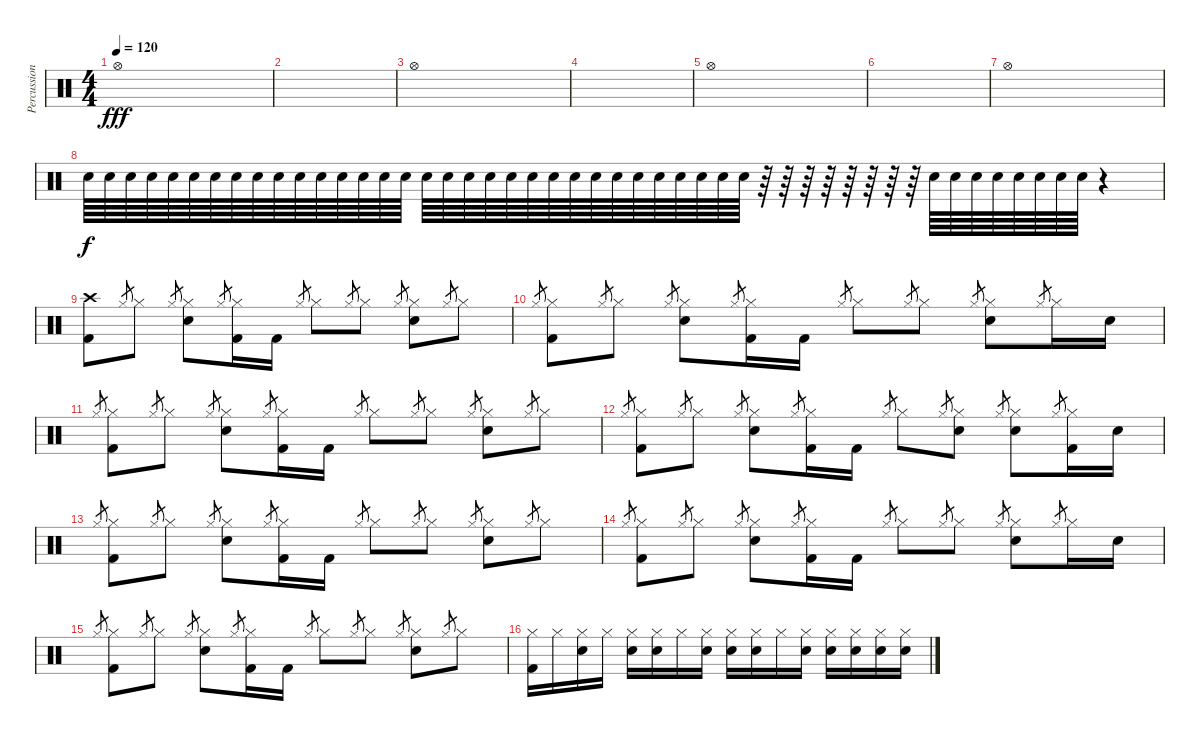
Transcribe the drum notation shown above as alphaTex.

\track ("Percussion" "Percussion") {instrument percussion}
\staff {score}
\articulation defaults
\ts (4 4)
\tempo 120
\clef neutral
\ks c "Hi-Hat (open)".1{dy fff}
|
|
"Hi-Hat (open)".1 |
|
"Hi-Hat (open)".1 |
|
"Hi-Hat (open)".1 |
"Snare (hit) 2".64{dy f} "Snare (hit) 2".64 "Snare (hit) 2".64 "Snare (hit) 2".64 "Snare (hit) 2".64 "Snare (hit) 2".64 "Snare (hit) 2".64 "Snare (hit) 2".64 "Snare (hit) 2".64 "Snare (hit) 2".64 "Snare (hit) 2".64 "Snare (hit) 2".64 "Snare (hit) 2".64 "Snare (hit) 2".64 "Snare (hit) 2".64 "Snare (hit) 2".64 "Snare (hit) 2".64 "Snare (hit) 2".64 "Snare (hit) 2".64 "Snare (hit) 2".64 "Snare (hit) 2".64 "Snare (hit) 2".64 "Snare (hit) 2".64 "Snare (hit) 2".64 "Snare (hit) 2".64 "Snare (hit) 2".64 "Snare (hit) 2".64 "Snare (hit) 2".64 "Snare (hit) 2".64 "Snare (hit) 2".64 "Snare (hit) 2".64 "Snare (hit) 2".64 r.64 r.64 r.64 r.64 r.64 r.64 r.64 r.64 "Snare (hit) 2".64 "Snare (hit) 2".64 "Snare (hit) 2".64 "Snare (hit) 2".64 "Snare (hit) 2".64 "Snare (hit) 2".64 "Snare (hit) 2".64 "Snare (hit) 2".64 r.4 |
("Crash high (hit)" "Kick (hit) 2").8 "Hi-Hat (closed)".8{gr} "Hi-Hat (closed)".8 "Hi-Hat (closed)".8{gr} ("Hi-Hat (closed)" "Snare (hit) 2").8 "Hi-Hat (closed)".8{gr} ("Hi-Hat (closed)" "Kick (hit) 2").16 "Kick (hit) 2".16 "Hi-Hat (closed)".8{gr} "Hi-Hat (closed)".8 "Hi-Hat (closed)".8{gr} "Hi-Hat (closed)".8 "Hi-Hat (closed)".8{gr} ("Hi-Hat (closed)" "Snare (hit) 2").8 "Hi-Hat (closed)".8{gr} "Hi-Hat (closed)".8 |
"Hi-Hat (closed)".8{gr} ("Hi-Hat (closed)" "Kick (hit) 2").8 "Hi-Hat (closed)".8{gr} "Hi-Hat (closed)".8 "Hi-Hat (closed)".8{gr} ("Hi-Hat (closed)" "Snare (hit) 2").8 "Hi-Hat (closed)".8{gr} ("Hi-Hat (closed)" "Kick (hit) 2").16 "Kick (hit) 2".16 "Hi-Hat (closed)".8{gr} "Hi-Hat (closed)".8 "Hi-Hat (closed)".8{gr} "Hi-Hat (closed)".8 "Hi-Hat (closed)".8{gr} ("Hi-Hat (closed)" "Snare (hit) 2").8 "Hi-Hat (closed)".8{gr} "Hi-Hat (closed)".16 "Snare (hit) 2".16 |
"Hi-Hat (closed)".8{gr} ("Hi-Hat (closed)" "Kick (hit) 2").8 "Hi-Hat (closed)".8{gr} "Hi-Hat (closed)".8 "Hi-Hat (closed)".8{gr} ("Hi-Hat (closed)" "Snare (hit) 2").8 "Hi-Hat (closed)".8{gr} ("Hi-Hat (closed)" "Kick (hit) 2").16 "Kick (hit) 2".16 "Hi-Hat (closed)".8{gr} "Hi-Hat (closed)".8 "Hi-Hat (closed)".8{gr} "Hi-Hat (closed)".8 "Hi-Hat (closed)".8{gr} ("Hi-Hat (closed)" "Snare (hit) 2").8 "Hi-Hat (closed)".8{gr} "Hi-Hat (closed)".8 |
"Hi-Hat (closed)".8{gr} ("Hi-Hat (closed)" "Kick (hit) 2").8 "Hi-Hat (closed)".8{gr} "Hi-Hat (closed)".8 "Hi-Hat (closed)".8{gr} ("Hi-Hat (closed)" "Snare (hit) 2").8 "Hi-Hat (closed)".8{gr} ("Hi-Hat (closed)" "Kick (hit) 2").16 "Kick (hit) 2".16 "Hi-Hat (closed)".8{gr} "Hi-Hat (closed)".8 "Hi-Hat (closed)".8{gr} ("Hi-Hat (closed)" "Snare (hit) 2").8 "Hi-Hat (closed)".8{gr} ("Hi-Hat (closed)" "Snare (hit) 2").8 "Hi-Hat (closed)".8{gr} ("Hi-Hat (closed)" "Kick (hit) 2").16 "Snare (hit) 2".16 |
"Hi-Hat (closed)".8{gr} ("Hi-Hat (closed)" "Kick (hit) 2").8 "Hi-Hat (closed)".8{gr} "Hi-Hat (closed)".8 "Hi-Hat (closed)".8{gr} ("Hi-Hat (closed)" "Snare (hit) 2").8 "Hi-Hat (closed)".8{gr} ("Hi-Hat (closed)" "Kick (hit) 2").16 "Kick (hit) 2".16 "Hi-Hat (closed)".8{gr} "Hi-Hat (closed)".8 "Hi-Hat (closed)".8{gr} "Hi-Hat (closed)".8 "Hi-Hat (closed)".8{gr} ("Hi-Hat (closed)" "Snare (hit) 2").8 "Hi-Hat (closed)".8{gr} "Hi-Hat (closed)".8 |
"Hi-Hat (closed)".8{gr} ("Hi-Hat (closed)" "Kick (hit) 2").8 "Hi-Hat (closed)".8{gr} "Hi-Hat (closed)".8 "Hi-Hat (closed)".8{gr} ("Hi-Hat (closed)" "Snare (hit) 2").8 "Hi-Hat (closed)".8{gr} ("Hi-Hat (closed)" "Kick (hit) 2").16 "Kick (hit) 2".16 "Hi-Hat (closed)".8{gr} "Hi-Hat (closed)".8 "Hi-Hat (closed)".8{gr} "Hi-Hat (closed)".8 "Hi-Hat (closed)".8{gr} ("Hi-Hat (closed)" "Snare (hit) 2").8 "Hi-Hat (closed)".8{gr} "Hi-Hat (closed)".16 "Snare (hit) 2".16 |
"Hi-Hat (closed)".8{gr} ("Hi-Hat (closed)" "Kick (hit) 2").8 "Hi-Hat (closed)".8{gr} "Hi-Hat (closed)".8 "Hi-Hat (closed)".8{gr} ("Hi-Hat (closed)" "Snare (hit) 2").8 "Hi-Hat (closed)".8{gr} ("Hi-Hat (closed)" "Kick (hit) 2").16 "Kick (hit) 2".16 "Hi-Hat (closed)".8{gr} "Hi-Hat (closed)".8 "Hi-Hat (closed)".8{gr} "Hi-Hat (closed)".8 "Hi-Hat (closed)".8{gr} ("Hi-Hat (closed)" "Snare (hit) 2").8 "Hi-Hat (closed)".8{gr} "Hi-Hat (closed)".8 |
("Hi-Hat (closed)" "Kick (hit) 2").16 "Hi-Hat (closed)".16 ("Hi-Hat (closed)" "Snare (hit) 2").16 "Hi-Hat (closed)".16 ("Hi-Hat (closed)" "Snare (hit) 2").16 ("Hi-Hat (closed)" "Snare (hit) 2").16 "Hi-Hat (closed)".16 ("Hi-Hat (closed)" "Snare (hit) 2").16 ("Hi-Hat (closed)" "Snare (hit) 2").16 ("Hi-Hat (closed)" "Snare (hit) 2").16 "Hi-Hat (closed)".16 ("Hi-Hat (closed)" "Snare (hit) 2").16 ("Hi-Hat (closed)" "Snare (hit) 2").16 ("Hi-Hat (closed)" "Snare (hit) 2").16 ("Hi-Hat (closed)" "Snare (hit) 2").16 ("Hi-Hat (closed)" "Snare (hit) 2").16
